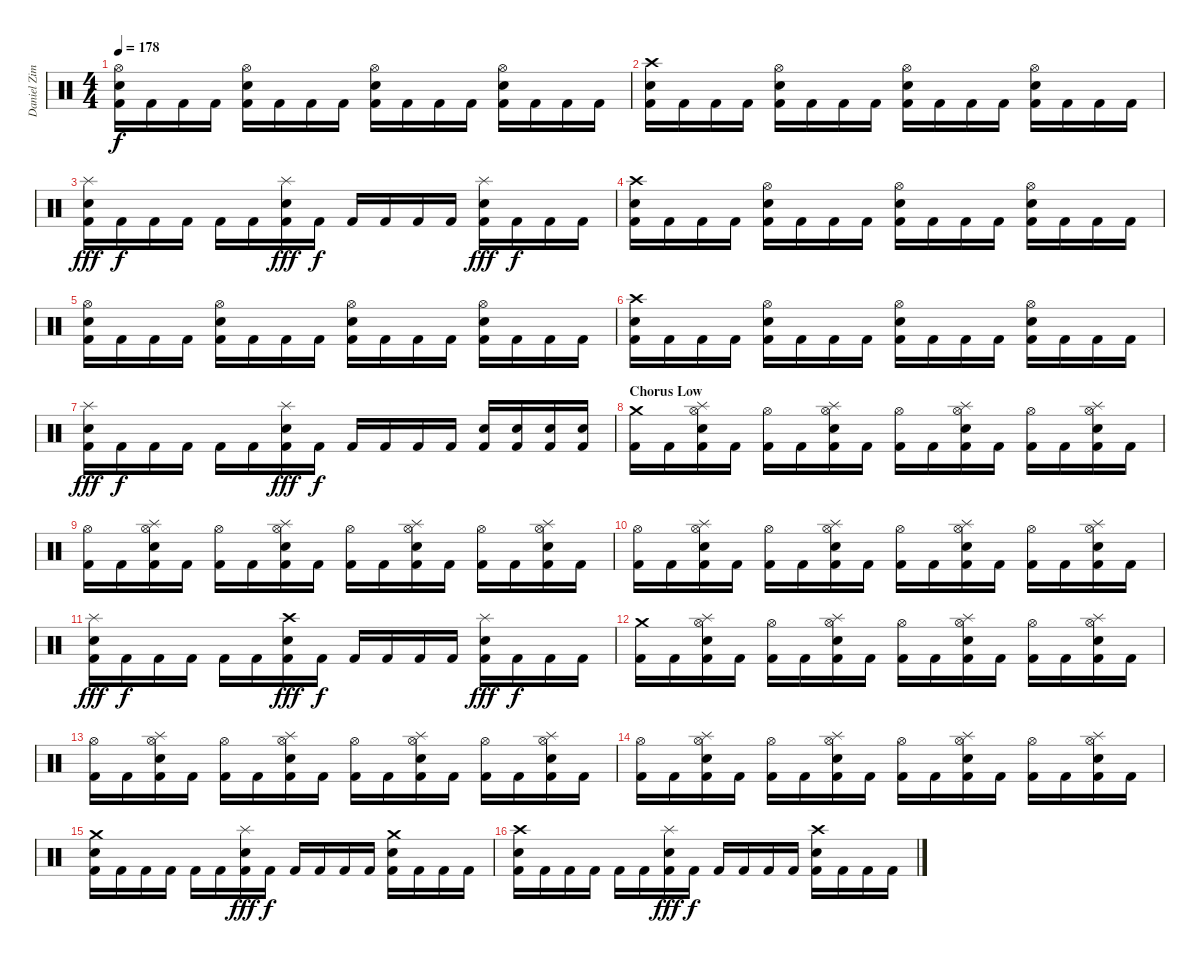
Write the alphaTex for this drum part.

\track ("Daniel Zimmermann" "Daniel Zim") {instrument percussion}
\staff {score}
\articulation defaults
\ts (4 4)
\tempo 178
\clef neutral
\ks c
("Kick (hit) 2" "Electric Snare (hit)" "Hi-Hat (open)").16{dy f} "Kick (hit) 2".16 "Kick (hit) 2".16 "Kick (hit) 2".16 ("Kick (hit) 2" "Electric Snare (hit)" "Hi-Hat (open)").16 "Kick (hit) 2".16 "Kick (hit) 2".16 "Kick (hit) 2".16 ("Kick (hit) 2" "Electric Snare (hit)" "Hi-Hat (open)").16 "Kick (hit) 2".16 "Kick (hit) 2".16 "Kick (hit) 2".16 ("Kick (hit) 2" "Electric Snare (hit)" "Hi-Hat (open)").16 "Kick (hit) 2".16 "Kick (hit) 2".16 "Kick (hit) 2".16 |
("Kick (hit) 2" "Electric Snare (hit)" "Crash high (hit)").16 "Kick (hit) 2".16 "Kick (hit) 2".16 "Kick (hit) 2".16 ("Kick (hit) 2" "Electric Snare (hit)" "Hi-Hat (open)").16 "Kick (hit) 2".16 "Kick (hit) 2".16 "Kick (hit) 2".16 ("Kick (hit) 2" "Electric Snare (hit)" "Hi-Hat (open)").16 "Kick (hit) 2".16 "Kick (hit) 2".16 "Kick (hit) 2".16 ("Kick (hit) 2" "Electric Snare (hit)" "Hi-Hat (open)").16 "Kick (hit) 2".16 "Kick (hit) 2".16 "Kick (hit) 2".16 |
("Kick (hit) 2" "Electric Snare (hit)" "Splash (hit)").16{dy fff} "Kick (hit) 2".16{dy f} "Kick (hit) 2".16 "Kick (hit) 2".16 "Kick (hit) 2".16 "Kick (hit) 2".16 ("Kick (hit) 2" "Electric Snare (hit)" "Splash (hit)").16{dy fff} "Kick (hit) 2".16{dy f} "Kick (hit) 2".16 "Kick (hit) 2".16 "Kick (hit) 2".16 "Kick (hit) 2".16 ("Kick (hit) 2" "Electric Snare (hit)" "Splash (hit)").16{dy fff} "Kick (hit) 2".16{dy f} "Kick (hit) 2".16 "Kick (hit) 2".16 |
("Kick (hit) 2" "Electric Snare (hit)" "Crash high (hit)").16 "Kick (hit) 2".16 "Kick (hit) 2".16 "Kick (hit) 2".16 ("Kick (hit) 2" "Electric Snare (hit)" "Hi-Hat (open)").16 "Kick (hit) 2".16 "Kick (hit) 2".16 "Kick (hit) 2".16 ("Kick (hit) 2" "Electric Snare (hit)" "Hi-Hat (open)").16 "Kick (hit) 2".16 "Kick (hit) 2".16 "Kick (hit) 2".16 ("Kick (hit) 2" "Electric Snare (hit)" "Hi-Hat (open)").16 "Kick (hit) 2".16 "Kick (hit) 2".16 "Kick (hit) 2".16 |
("Kick (hit) 2" "Electric Snare (hit)" "Hi-Hat (open)").16 "Kick (hit) 2".16 "Kick (hit) 2".16 "Kick (hit) 2".16 ("Kick (hit) 2" "Electric Snare (hit)" "Hi-Hat (open)").16 "Kick (hit) 2".16 "Kick (hit) 2".16 "Kick (hit) 2".16 ("Kick (hit) 2" "Electric Snare (hit)" "Hi-Hat (open)").16 "Kick (hit) 2".16 "Kick (hit) 2".16 "Kick (hit) 2".16 ("Kick (hit) 2" "Electric Snare (hit)" "Hi-Hat (open)").16 "Kick (hit) 2".16 "Kick (hit) 2".16 "Kick (hit) 2".16 |
("Kick (hit) 2" "Electric Snare (hit)" "Crash high (hit)").16 "Kick (hit) 2".16 "Kick (hit) 2".16 "Kick (hit) 2".16 ("Kick (hit) 2" "Electric Snare (hit)" "Hi-Hat (open)").16 "Kick (hit) 2".16 "Kick (hit) 2".16 "Kick (hit) 2".16 ("Kick (hit) 2" "Electric Snare (hit)" "Hi-Hat (open)").16 "Kick (hit) 2".16 "Kick (hit) 2".16 "Kick (hit) 2".16 ("Kick (hit) 2" "Electric Snare (hit)" "Hi-Hat (open)").16 "Kick (hit) 2".16 "Kick (hit) 2".16 "Kick (hit) 2".16 |
("Kick (hit) 2" "Electric Snare (hit)" "Splash (hit)").16{dy fff} "Kick (hit) 2".16{dy f} "Kick (hit) 2".16 "Kick (hit) 2".16 "Kick (hit) 2".16 "Kick (hit) 2".16 ("Kick (hit) 2" "Electric Snare (hit)" "Splash (hit)").16{dy fff} "Kick (hit) 2".16{dy f} "Kick (hit) 2".16 "Kick (hit) 2".16 "Kick (hit) 2".16 "Kick (hit) 2".16 ("Kick (hit) 2" "Electric Snare (hit)").16 ("Kick (hit) 2" "Electric Snare (hit)").16 ("Kick (hit) 2" "Electric Snare (hit)").16 ("Kick (hit) 2" "Electric Snare (hit)").16 |
\section ("" "Chorus Low")
("Kick (hit) 2" "Crash medium (hit)").16 "Kick (hit) 2".16 ("Kick (hit) 2" "Electric Snare (hit)" "Hi-Hat (open)" "Splash (hit)").16 "Kick (hit) 2".16 ("Kick (hit) 2" "Hi-Hat (open)").16 "Kick (hit) 2".16 ("Kick (hit) 2" "Electric Snare (hit)" "Hi-Hat (open)" "Splash (hit)").16 "Kick (hit) 2".16 ("Kick (hit) 2" "Hi-Hat (open)").16 "Kick (hit) 2".16 ("Kick (hit) 2" "Electric Snare (hit)" "Hi-Hat (open)" "Splash (hit)").16 "Kick (hit) 2".16 ("Kick (hit) 2" "Hi-Hat (open)").16 "Kick (hit) 2".16 ("Kick (hit) 2" "Electric Snare (hit)" "Hi-Hat (open)" "Splash (hit)").16 "Kick (hit) 2".16 |
("Kick (hit) 2" "Hi-Hat (open)").16 "Kick (hit) 2".16 ("Kick (hit) 2" "Electric Snare (hit)" "Hi-Hat (open)" "Splash (hit)").16 "Kick (hit) 2".16 ("Kick (hit) 2" "Hi-Hat (open)").16 "Kick (hit) 2".16 ("Kick (hit) 2" "Electric Snare (hit)" "Hi-Hat (open)" "Splash (hit)").16 "Kick (hit) 2".16 ("Kick (hit) 2" "Hi-Hat (open)").16 "Kick (hit) 2".16 ("Kick (hit) 2" "Electric Snare (hit)" "Hi-Hat (open)" "Splash (hit)").16 "Kick (hit) 2".16 ("Kick (hit) 2" "Hi-Hat (open)").16 "Kick (hit) 2".16 ("Kick (hit) 2" "Electric Snare (hit)" "Hi-Hat (open)" "Splash (hit)").16 "Kick (hit) 2".16 |
("Kick (hit) 2" "Hi-Hat (open)").16 "Kick (hit) 2".16 ("Kick (hit) 2" "Electric Snare (hit)" "Hi-Hat (open)" "Splash (hit)").16 "Kick (hit) 2".16 ("Kick (hit) 2" "Hi-Hat (open)").16 "Kick (hit) 2".16 ("Kick (hit) 2" "Electric Snare (hit)" "Hi-Hat (open)" "Splash (hit)").16 "Kick (hit) 2".16 ("Kick (hit) 2" "Hi-Hat (open)").16 "Kick (hit) 2".16 ("Kick (hit) 2" "Electric Snare (hit)" "Hi-Hat (open)" "Splash (hit)").16 "Kick (hit) 2".16 ("Kick (hit) 2" "Hi-Hat (open)").16 "Kick (hit) 2".16 ("Kick (hit) 2" "Electric Snare (hit)" "Hi-Hat (open)" "Splash (hit)").16 "Kick (hit) 2".16 |
("Kick (hit) 2" "Electric Snare (hit)" "Splash (hit)").16{dy fff} "Kick (hit) 2".16{dy f} "Kick (hit) 2".16 "Kick (hit) 2".16 "Kick (hit) 2".16 "Kick (hit) 2".16 ("Kick (hit) 2" "Electric Snare (hit)" "Crash high (hit)").16{dy fff} "Kick (hit) 2".16{dy f} "Kick (hit) 2".16 "Kick (hit) 2".16 "Kick (hit) 2".16 "Kick (hit) 2".16 ("Kick (hit) 2" "Electric Snare (hit)" "Splash (hit)").16{dy fff} "Kick (hit) 2".16{dy f} "Kick (hit) 2".16 "Kick (hit) 2".16 |
("Kick (hit) 2" "Crash medium (hit)").16 "Kick (hit) 2".16 ("Kick (hit) 2" "Electric Snare (hit)" "Hi-Hat (open)" "Splash (hit)").16 "Kick (hit) 2".16 ("Kick (hit) 2" "Hi-Hat (open)").16 "Kick (hit) 2".16 ("Kick (hit) 2" "Electric Snare (hit)" "Hi-Hat (open)" "Splash (hit)").16 "Kick (hit) 2".16 ("Kick (hit) 2" "Hi-Hat (open)").16 "Kick (hit) 2".16 ("Kick (hit) 2" "Electric Snare (hit)" "Hi-Hat (open)" "Splash (hit)").16 "Kick (hit) 2".16 ("Kick (hit) 2" "Hi-Hat (open)").16 "Kick (hit) 2".16 ("Kick (hit) 2" "Electric Snare (hit)" "Hi-Hat (open)" "Splash (hit)").16 "Kick (hit) 2".16 |
("Kick (hit) 2" "Hi-Hat (open)").16 "Kick (hit) 2".16 ("Kick (hit) 2" "Electric Snare (hit)" "Hi-Hat (open)" "Splash (hit)").16 "Kick (hit) 2".16 ("Kick (hit) 2" "Hi-Hat (open)").16 "Kick (hit) 2".16 ("Kick (hit) 2" "Electric Snare (hit)" "Hi-Hat (open)" "Splash (hit)").16 "Kick (hit) 2".16 ("Kick (hit) 2" "Hi-Hat (open)").16 "Kick (hit) 2".16 ("Kick (hit) 2" "Electric Snare (hit)" "Hi-Hat (open)" "Splash (hit)").16 "Kick (hit) 2".16 ("Kick (hit) 2" "Hi-Hat (open)").16 "Kick (hit) 2".16 ("Kick (hit) 2" "Electric Snare (hit)" "Hi-Hat (open)" "Splash (hit)").16 "Kick (hit) 2".16 |
("Kick (hit) 2" "Hi-Hat (open)").16 "Kick (hit) 2".16 ("Kick (hit) 2" "Electric Snare (hit)" "Hi-Hat (open)" "Splash (hit)").16 "Kick (hit) 2".16 ("Kick (hit) 2" "Hi-Hat (open)").16 "Kick (hit) 2".16 ("Kick (hit) 2" "Electric Snare (hit)" "Hi-Hat (open)" "Splash (hit)").16 "Kick (hit) 2".16 ("Kick (hit) 2" "Hi-Hat (open)").16 "Kick (hit) 2".16 ("Kick (hit) 2" "Electric Snare (hit)" "Hi-Hat (open)" "Splash (hit)").16 "Kick (hit) 2".16 ("Kick (hit) 2" "Hi-Hat (open)").16 "Kick (hit) 2".16 ("Kick (hit) 2" "Electric Snare (hit)" "Hi-Hat (open)" "Splash (hit)").16 "Kick (hit) 2".16 |
("Kick (hit) 2" "Electric Snare (hit)" "Crash medium (hit)").16 "Kick (hit) 2".16 "Kick (hit) 2".16 "Kick (hit) 2".16 "Kick (hit) 2".16 "Kick (hit) 2".16 ("Kick (hit) 2" "Electric Snare (hit)" "Splash (hit)").16{dy fff} "Kick (hit) 2".16{dy f} "Kick (hit) 2".16 "Kick (hit) 2".16 "Kick (hit) 2".16 "Kick (hit) 2".16 ("Kick (hit) 2" "Electric Snare (hit)" "Crash medium (hit)").16 "Kick (hit) 2".16 "Kick (hit) 2".16 "Kick (hit) 2".16 |
("Kick (hit) 2" "Electric Snare (hit)" "Crash high (hit)").16 "Kick (hit) 2".16 "Kick (hit) 2".16 "Kick (hit) 2".16 "Kick (hit) 2".16 "Kick (hit) 2".16 ("Kick (hit) 2" "Electric Snare (hit)" "Splash (hit)").16{dy fff} "Kick (hit) 2".16{dy f} "Kick (hit) 2".16 "Kick (hit) 2".16 "Kick (hit) 2".16 "Kick (hit) 2".16 ("Kick (hit) 2" "Electric Snare (hit)" "Crash high (hit)").16 "Kick (hit) 2".16 "Kick (hit) 2".16 "Kick (hit) 2".16
